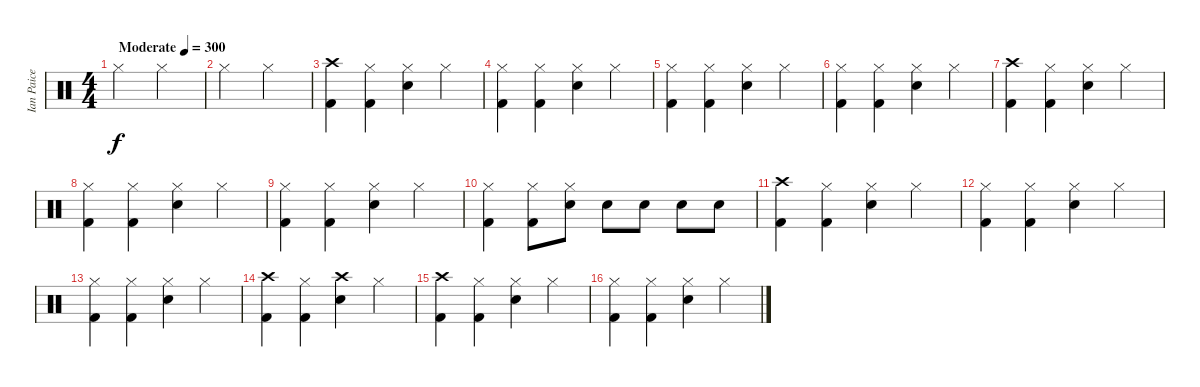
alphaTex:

\track ("Ian Paice" "Ian Paice") {instrument percussion}
\staff {score}
\articulation defaults
\ts (4 4)
\tempo (300 "Moderate")
\clef neutral
\ks c "Hi-Hat (closed)".2{dy f} "Hi-Hat (closed)".2
|
"Hi-Hat (closed)".2 "Hi-Hat (closed)".2 |
("Crash high (hit)" "Kick (hit) 2").4 ("Hi-Hat (closed)" "Kick (hit) 2").4 ("Hi-Hat (closed)" "Electric Snare (hit)").4 "Hi-Hat (closed)".4 |
("Hi-Hat (closed)" "Kick (hit) 2").4 ("Hi-Hat (closed)" "Kick (hit) 2").4 ("Hi-Hat (closed)" "Electric Snare (hit)").4 "Hi-Hat (closed)".4 |
("Hi-Hat (closed)" "Kick (hit) 2").4 ("Hi-Hat (closed)" "Kick (hit) 2").4 ("Hi-Hat (closed)" "Electric Snare (hit)").4 "Hi-Hat (closed)".4 |
("Hi-Hat (closed)" "Kick (hit) 2").4 ("Hi-Hat (closed)" "Kick (hit) 2").4 ("Hi-Hat (closed)" "Electric Snare (hit)").4 "Hi-Hat (closed)".4 |
("Crash high (hit)" "Kick (hit) 2").4 ("Hi-Hat (closed)" "Kick (hit) 2").4 ("Hi-Hat (closed)" "Electric Snare (hit)").4 "Hi-Hat (closed)".4 |
("Hi-Hat (closed)" "Kick (hit) 2").4 ("Hi-Hat (closed)" "Kick (hit) 2").4 ("Hi-Hat (closed)" "Electric Snare (hit)").4 "Hi-Hat (closed)".4 |
("Hi-Hat (closed)" "Kick (hit) 2").4 ("Hi-Hat (closed)" "Kick (hit) 2").4 ("Hi-Hat (closed)" "Electric Snare (hit)").4 "Hi-Hat (closed)".4 |
("Hi-Hat (closed)" "Kick (hit) 2").4 ("Hi-Hat (closed)" "Kick (hit) 2").8 ("Hi-Hat (closed)" "Electric Snare (hit)").8 "Electric Snare (hit)".8 "Electric Snare (hit)".8 "Electric Snare (hit)".8 "Electric Snare (hit)".8 |
("Crash high (hit)" "Kick (hit) 2").4 ("Hi-Hat (closed)" "Kick (hit) 2").4 ("Hi-Hat (closed)" "Electric Snare (hit)").4 "Hi-Hat (closed)".4 |
("Hi-Hat (closed)" "Kick (hit) 2").4 ("Hi-Hat (closed)" "Kick (hit) 2").4 ("Hi-Hat (closed)" "Electric Snare (hit)").4 "Hi-Hat (closed)".4 |
("Hi-Hat (closed)" "Kick (hit) 2").4 ("Hi-Hat (closed)" "Kick (hit) 2").4 ("Hi-Hat (closed)" "Electric Snare (hit)").4 "Hi-Hat (closed)".4 |
("Crash high (hit)" "Kick (hit) 2").4 ("Hi-Hat (closed)" "Kick (hit) 2").4 ("Crash high (hit)" "Electric Snare (hit)").4 "Hi-Hat (closed)".4 |
("Crash high (hit)" "Kick (hit) 2").4 ("Hi-Hat (closed)" "Kick (hit) 2").4 ("Hi-Hat (closed)" "Electric Snare (hit)").4 "Hi-Hat (closed)".4 |
("Hi-Hat (closed)" "Kick (hit) 2").4 ("Hi-Hat (closed)" "Kick (hit) 2").4 ("Hi-Hat (closed)" "Electric Snare (hit)").4 "Hi-Hat (closed)".4
